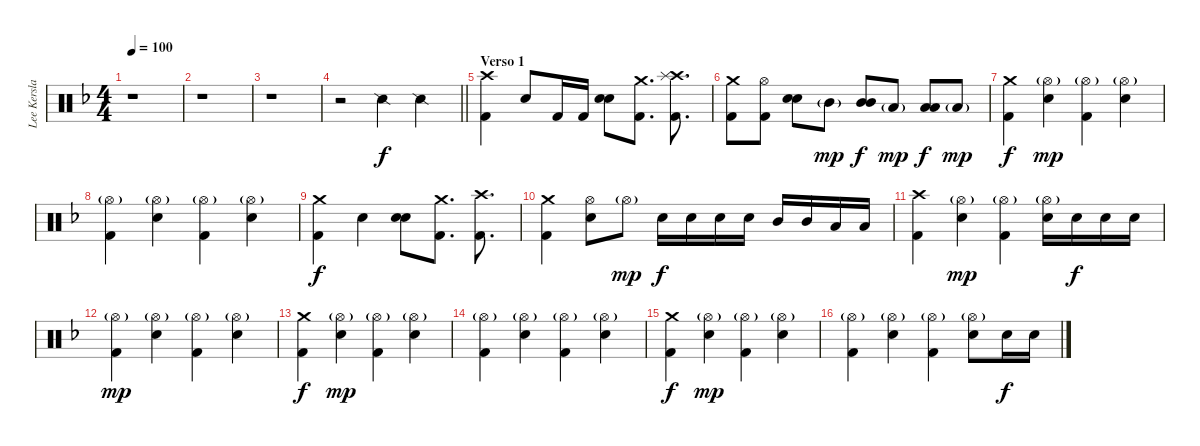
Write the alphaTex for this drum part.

\track ("Lee Kerslake - Drums" "Lee Kersla") {instrument percussion}
\staff {score}
\articulation defaults
\ts (4 4)
\tempo 100
\clef neutral
\ks dminor
r.1{dy f} |
r.1 |
r.1 |
\barLineRight lightlight
r.2 "Snare (side stick) 2".4{volume 6} "Snare (side stick) 2".4 |
\section ("" "Verso 1")
("Crash high (hit)" "Kick (hit) 2").4{volume 15} "Snare (hit) 2".8 "Kick (hit) 2".16 "Kick (hit) 2".16 ("Snare (hit) 2" "Snare (hit) 2").8{bd 240} ("Crash medium (hit)" "Kick (hit) 2").8{d} ("Crash high (hit)" "Splash (hit)" "Kick (hit) 2").8{d} |
("Crash medium (hit)" "Kick (hit) 2").8 ("Hi-Hat (open)" "Kick (hit) 2").8 ("Snare (hit) 2" "Snare (hit) 2").8{bd 240} "Mid Tom (hit)"{g}.8{dy mp} ("Mid Tom (hit)" "Mid Tom (hit)").8{bd 240 dy f} "Low Tom (hit)"{g}.8{dy mp} ("Low Tom (hit)" "Low Tom (hit)").8{bd 240 dy f} "Low Tom (hit)"{g}.8{dy mp} |
("Crash medium (hit)" "Kick (hit) 2").4{dy f} ("Hi-Hat (open)"{g} "Snare (hit) 2").4{dy mp} ("Hi-Hat (open)"{g} "Kick (hit) 2").4 ("Hi-Hat (open)"{g} "Snare (hit) 2").4 |
("Hi-Hat (open)"{g} "Kick (hit) 2").4 ("Hi-Hat (open)"{g} "Snare (hit) 2").4 ("Hi-Hat (open)"{g} "Kick (hit) 2").4 ("Hi-Hat (open)"{g} "Snare (hit) 2").4 |
("Crash medium (hit)" "Kick (hit) 2").4{dy f} "Snare (hit) 2".4 ("Snare (hit) 2" "Snare (hit) 2").8{bd 240} ("Crash medium (hit)" "Kick (hit) 2").8{d} ("Crash high (hit)" "Kick (hit) 2").8{d} |
("Crash medium (hit)" "Kick (hit) 2").4 ("Hi-Hat (open)" "Snare (hit) 2").8 "Hi-Hat (open)"{g}.8{dy mp} "Snare (hit) 2".16{dy f} "Snare (hit) 2".16 "Snare (hit) 2".16 "Snare (hit) 2".16 "Mid Tom (hit)".16 "Mid Tom (hit)".16 "Low Tom (hit)".16 "Low Tom (hit)".16 |
("Crash high (hit)" "Kick (hit) 2").4 ("Hi-Hat (open)"{g} "Snare (hit) 2").4{dy mp} ("Hi-Hat (open)"{g} "Kick (hit) 2").4 ("Hi-Hat (open)"{g} "Snare (hit) 2").16 "Snare (hit) 2".16{dy f} "Snare (hit) 2".16 "Snare (hit) 2".16 |
("Hi-Hat (open)"{g} "Kick (hit) 2").4{dy mp} ("Hi-Hat (open)"{g} "Snare (hit) 2").4 ("Hi-Hat (open)"{g} "Kick (hit) 2").4 ("Hi-Hat (open)"{g} "Snare (hit) 2").4 |
("Crash medium (hit)" "Kick (hit) 2").4{dy f} ("Hi-Hat (open)"{g} "Snare (hit) 2").4{dy mp} ("Hi-Hat (open)"{g} "Kick (hit) 2").4 ("Hi-Hat (open)"{g} "Snare (hit) 2").4 |
("Hi-Hat (open)"{g} "Kick (hit) 2").4 ("Hi-Hat (open)"{g} "Snare (hit) 2").4 ("Hi-Hat (open)"{g} "Kick (hit) 2").4 ("Hi-Hat (open)"{g} "Snare (hit) 2").4 |
("Crash medium (hit)" "Kick (hit) 2").4{dy f} ("Hi-Hat (open)"{g} "Snare (hit) 2").4{dy mp} ("Hi-Hat (open)"{g} "Kick (hit) 2").4 ("Hi-Hat (open)"{g} "Snare (hit) 2").4 |
("Hi-Hat (open)"{g} "Kick (hit) 2").4 ("Hi-Hat (open)"{g} "Snare (hit) 2").4 ("Hi-Hat (open)"{g} "Kick (hit) 2").4 ("Hi-Hat (open)"{g} "Snare (hit) 2").8 "Snare (hit) 2".16{dy f} "Snare (hit) 2".16
